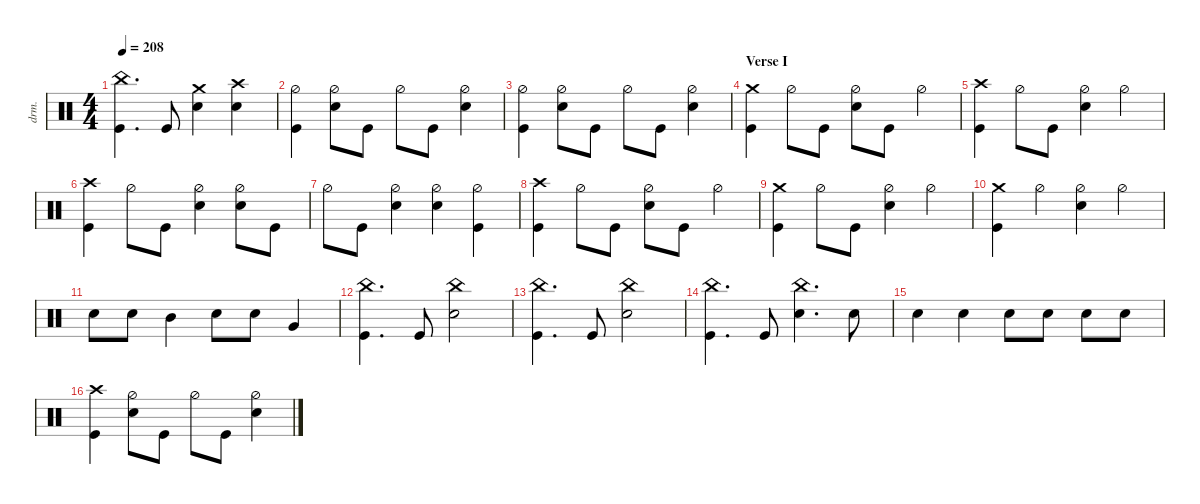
\defaultSystemsLayout 4
\hideDynamics
\bracketExtendMode nobrackets
\otherSystemsTrackNameOrientation horizontal
\track ("Drums" "drm.") {multiBarRest instrument percussion}
\staff
\articulation defaults
\ts (4 4)
\tempo 208
\clef neutral
\ks c
("China (hit)" "Kick (hit)").4{d dy f} "Kick (hit)".8 ("Snare (hit) 2" "Crash medium (hit)").4 ("Snare (hit) 2" "Crash high (hit)").4 |
("Kick (hit)" "Hi-Hat (half)").4 ("Snare (hit) 2" "Hi-Hat (half)").8 "Kick (hit)".8 "Hi-Hat (half)".8 "Kick (hit)".8 ("Snare (hit) 2" "Hi-Hat (half)").4 |
("Kick (hit)" "Hi-Hat (half)").4 ("Snare (hit) 2" "Hi-Hat (half)").8 "Kick (hit)".8 "Hi-Hat (half)".8 "Kick (hit)".8 ("Snare (hit) 2" "Hi-Hat (half)").4 |
\section ("" "Verse I")
("Kick (hit)" "Crash medium (hit)").4 "Hi-Hat (half)".8 "Kick (hit)".8 ("Snare (hit) 2" "Hi-Hat (half)").8 "Kick (hit)".8 "Hi-Hat (half)".4 |
("Crash high (hit)" "Kick (hit)").4 "Hi-Hat (half)".8 "Kick (hit)".8 ("Snare (hit) 2" "Hi-Hat (half)").4 "Hi-Hat (half)".4 |
("Crash high (hit)" "Kick (hit)").4 "Hi-Hat (half)".8 "Kick (hit)".8 ("Snare (hit) 2" "Hi-Hat (half)").4 ("Snare (hit) 2" "Hi-Hat (half)").8 "Kick (hit)".8 |
"Hi-Hat (half)".8{dy mf} "Kick (hit)".8{dy f} ("Snare (hit) 2" "Hi-Hat (half)").4 ("Snare (hit) 2" "Hi-Hat (half)").4 ("Hi-Hat (half)" "Kick (hit)").4 |
("Kick (hit)" "Crash high (hit)").4 "Hi-Hat (half)".8 "Kick (hit)".8 ("Snare (hit) 2" "Hi-Hat (half)").8 "Kick (hit)".8 "Hi-Hat (half)".4 |
("Kick (hit)" "Crash medium (hit)").4 "Hi-Hat (half)".8 "Kick (hit)".8 ("Snare (hit) 2" "Hi-Hat (half)").4 "Hi-Hat (half)".4 |
("Kick (hit)" "Crash medium (hit)").4 "Hi-Hat (half)".4 ("Snare (hit) 2" "Hi-Hat (half)").4 "Hi-Hat (half)".4 |
"Snare (hit) 2".8 "Snare (hit) 2".8 "Mid Tom (hit)".4{dy ff} "Snare (hit) 2".8{dy f} "Snare (hit) 2".8 "Very Low Tom (hit)".4{dy ff} |
("China (hit)" "Kick (hit)").4{d dy f} "Kick (hit)".8 ("Snare (hit) 2" "China (hit)").2 |
("China (hit)" "Kick (hit)").4{d} "Kick (hit)".8 ("Snare (hit) 2" "China (hit)").2 |
("China (hit)" "Kick (hit)").4{d} "Kick (hit)".8 ("Snare (hit) 2" "China (hit)").4{d} "Snare (hit) 2".8 |
"Snare (hit) 2".4 "Snare (hit) 2".4 "Snare (hit) 2".8 "Snare (hit) 2".8 "Snare (hit) 2".8 "Snare (hit) 2".8 |
("Crash high (hit)" "Kick (hit)").4 ("Snare (hit) 2" "Hi-Hat (half)").8 "Kick (hit)".8 "Hi-Hat (half)".8 "Kick (hit)".8 ("Snare (hit) 2" "Hi-Hat (half)").4
